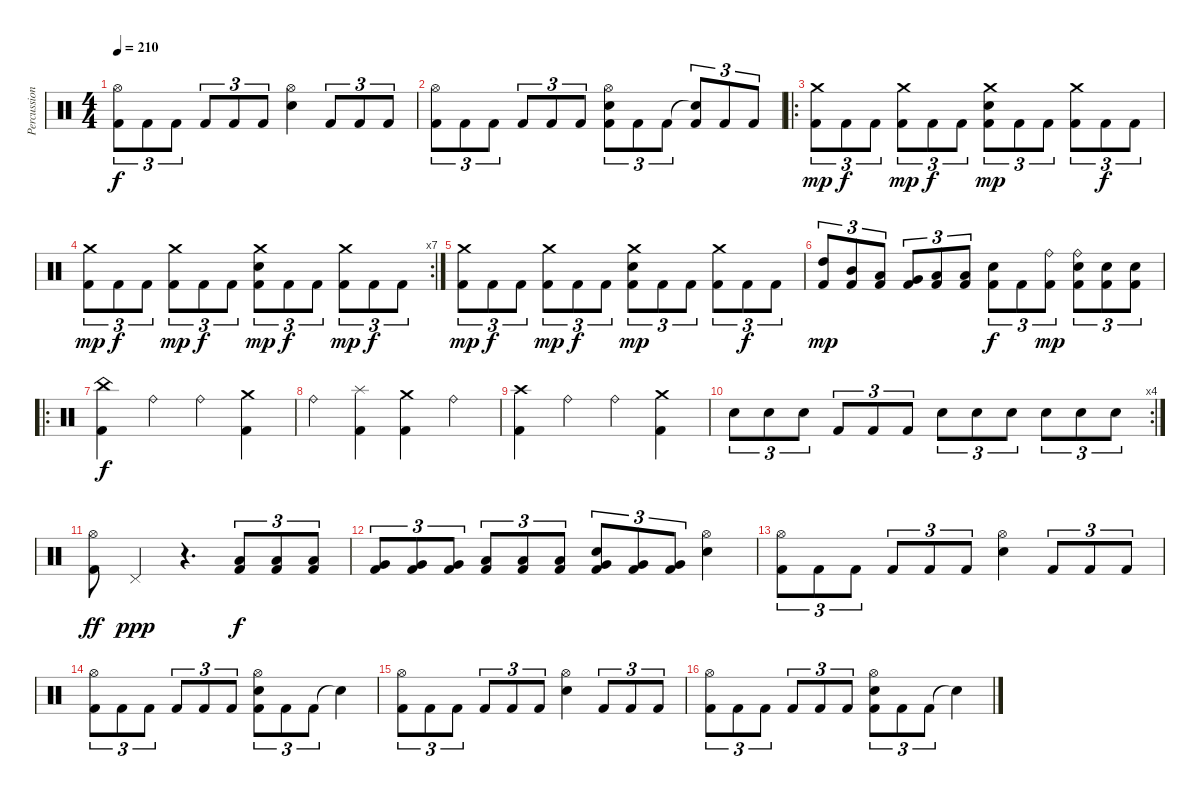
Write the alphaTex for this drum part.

\track ("Percussion" "Percussion") {instrument percussion}
\staff {score}
\articulation defaults
\ts (4 4)
\tempo 210
\clef neutral
\ks c
("Hi-Hat (open)" "Kick (hit) 2").8{tu (3 2) dy f} "Kick (hit) 2".8{tu (3 2)} "Kick (hit) 2".8{tu (3 2)} "Kick (hit) 2".8{tu (3 2)} "Kick (hit) 2".8{tu (3 2)} "Kick (hit) 2".8{tu (3 2)} ("Hi-Hat (open)" "Electric Snare (hit)").4 "Kick (hit) 2".8{tu (3 2)} "Kick (hit) 2".8{tu (3 2)} "Kick (hit) 2".8{tu (3 2)} |
("Hi-Hat (open)" "Kick (hit) 2").8{tu (3 2)} "Kick (hit) 2".8{tu (3 2)} "Kick (hit) 2".8{tu (3 2)} "Kick (hit) 2".8{tu (3 2)} "Kick (hit) 2".8{tu (3 2)} "Kick (hit) 2".8{tu (3 2)} ("Hi-Hat (open)" "Electric Snare (hit)" "Kick (hit) 2").8{tu (3 2)} "Kick (hit) 2".8{tu (3 2)} "Kick (hit) 2".8{tu (3 2)} ("Snare (hit)"{t} "Kick (hit) 2").8{tu (3 2)} "Kick (hit) 2".8{tu (3 2)} "Kick (hit) 2".8{tu (3 2)} |
\ro
("Crash medium (hit)" "Kick (hit) 2").8{tu (3 2) dy mp} "Kick (hit) 2".8{tu (3 2) dy f} "Kick (hit) 2".8{tu (3 2)} ("Crash medium (hit)" "Kick (hit) 2").8{tu (3 2) dy mp} "Kick (hit) 2".8{tu (3 2) dy f} "Kick (hit) 2".8{tu (3 2)} ("Crash medium (hit)" "Electric Snare (hit)" "Kick (hit) 2").8{tu (3 2) dy mp} "Kick (hit) 2".8{tu (3 2)} "Kick (hit) 2".8{tu (3 2)} ("Crash medium (hit)" "Kick (hit) 2").8{tu (3 2)} "Kick (hit) 2".8{tu (3 2) dy f} "Kick (hit) 2".8{tu (3 2)} |
\rc 7
("Crash medium (hit)" "Kick (hit) 2").8{tu (3 2) dy mp} "Kick (hit) 2".8{tu (3 2) dy f} "Kick (hit) 2".8{tu (3 2)} ("Crash medium (hit)" "Kick (hit) 2").8{tu (3 2) dy mp} "Kick (hit) 2".8{tu (3 2) dy f} "Kick (hit) 2".8{tu (3 2)} ("Crash medium (hit)" "Electric Snare (hit)" "Kick (hit) 2").8{tu (3 2) dy mp} "Kick (hit) 2".8{tu (3 2) dy f} "Kick (hit) 2".8{tu (3 2)} ("Crash medium (hit)" "Kick (hit) 2").8{tu (3 2) dy mp} "Kick (hit) 2".8{tu (3 2) dy f} "Kick (hit) 2".8{tu (3 2)} |
("Crash medium (hit)" "Kick (hit) 2").8{tu (3 2) dy mp} "Kick (hit) 2".8{tu (3 2) dy f} "Kick (hit) 2".8{tu (3 2)} ("Crash medium (hit)" "Kick (hit) 2").8{tu (3 2) dy mp} "Kick (hit) 2".8{tu (3 2) dy f} "Kick (hit) 2".8{tu (3 2)} ("Crash medium (hit)" "Electric Snare (hit)" "Kick (hit) 2").8{tu (3 2) dy mp} "Kick (hit) 2".8{tu (3 2)} "Kick (hit) 2".8{tu (3 2)} ("Crash medium (hit)" "Kick (hit) 2").8{tu (3 2)} "Kick (hit) 2".8{tu (3 2) dy f} "Kick (hit) 2".8{tu (3 2)} |
("High Tom (hit)" "Kick (hit) 2").8{tu (3 2) dy mp} ("Mid Tom (hit)" "Kick (hit) 2").8{tu (3 2)} ("Low Tom (hit)" "Kick (hit) 2").8{tu (3 2)} ("Very Low Tom (hit)" "Kick (hit) 2").8{tu (3 2)} ("Low Floor Tom (hit)" "Kick (hit) 2").8{tu (3 2)} ("Low Floor Tom (hit)" "Kick (hit) 2").8{tu (3 2)} ("Electric Snare (hit)" "Kick (hit) 2").8{tu (3 2) dy f} "Kick (hit) 2".8{tu (3 2)} ("Ride (bell)" "Kick (hit) 2").8{tu (3 2) dy mp} ("Ride (bell)" "Electric Snare (hit)" "Kick (hit) 2").8{tu (3 2)} ("Electric Snare (hit)" "Kick (hit) 2").8{tu (3 2)} ("Electric Snare (hit)" "Kick (hit) 2").8{tu (3 2)} |
\ro
("China (hit)" "Kick (hit) 2").4{dy f} "Ride (bell)".4 "Ride (bell)".4 ("Crash medium (hit)" "Kick (hit) 2").4 |
"Ride (bell)".4 ("Splash (hit)" "Kick (hit) 2").4 ("Crash medium (hit)" "Kick (hit) 2").4 "Ride (bell)".4 |
("Crash high (hit)" "Kick (hit) 2").4 "Ride (bell)".4 "Ride (bell)".4 ("Crash medium (hit)" "Kick (hit) 2").4 |
\rc 4 "Electric Snare (hit)".8{tu (3 2)} "Electric Snare (hit)".8{tu (3 2)} "Electric Snare (hit)".8{tu (3 2)} "Kick (hit) 2".8{tu (3 2)} "Kick (hit) 2".8{tu (3 2)} "Kick (hit) 2".8{tu (3 2)} "Electric Snare (hit)".8{tu (3 2)} "Electric Snare (hit)".8{tu (3 2)} "Electric Snare (hit)".8{tu (3 2)} "Electric Snare (hit)".8{tu (3 2)} "Electric Snare (hit)".8{tu (3 2)} "Electric Snare (hit)".8{tu (3 2)}
|
("Hi-Hat (open)" "Kick (hit) 2").8{dy ff} "Pedal Hi-Hat (hit)".4{dy ppp} r.4{d} ("Low Tom (hit)" "Kick (hit) 2").8{tu (3 2) dy f} ("Low Tom (hit)" "Kick (hit) 2").8{tu (3 2)} ("Low Tom (hit)" "Kick (hit) 2").8{tu (3 2)} |
("Very Low Tom (hit)" "Kick (hit) 2").8{tu (3 2)} ("Very Low Tom (hit)" "Kick (hit) 2").8{tu (3 2)} ("Very Low Tom (hit)" "Kick (hit) 2").8{tu (3 2)} ("Low Floor Tom (hit)" "Kick (hit) 2").8{tu (3 2)} ("Low Floor Tom (hit)" "Kick (hit) 2").8{tu (3 2)} ("Low Floor Tom (hit)" "Kick (hit) 2").8{tu (3 2)} ("Electric Snare (hit)" "Very Low Tom (hit)" "Kick (hit) 2").8{tu (3 2)} ("Very Low Tom (hit)" "Kick (hit) 2").8{tu (3 2)} ("Very Low Tom (hit)" "Kick (hit) 2").8{tu (3 2)} ("Hi-Hat (open)" "Electric Snare (hit)").4 |
("Hi-Hat (open)" "Kick (hit) 2").8{tu (3 2)} "Kick (hit) 2".8{tu (3 2)} "Kick (hit) 2".8{tu (3 2)} "Kick (hit) 2".8{tu (3 2)} "Kick (hit) 2".8{tu (3 2)} "Kick (hit) 2".8{tu (3 2)} ("Hi-Hat (open)" "Electric Snare (hit)").4 "Kick (hit) 2".8{tu (3 2)} "Kick (hit) 2".8{tu (3 2)} "Kick (hit) 2".8{tu (3 2)} |
("Hi-Hat (open)" "Kick (hit) 2").8{tu (3 2)} "Kick (hit) 2".8{tu (3 2)} "Kick (hit) 2".8{tu (3 2)} "Kick (hit) 2".8{tu (3 2)} "Kick (hit) 2".8{tu (3 2)} "Kick (hit) 2".8{tu (3 2)} ("Hi-Hat (open)" "Electric Snare (hit)" "Kick (hit) 2").8{tu (3 2)} "Kick (hit) 2".8{tu (3 2)} "Kick (hit) 2".8{tu (3 2)} "Snare (hit)"{t}.4 |
("Hi-Hat (open)" "Kick (hit) 2").8{tu (3 2)} "Kick (hit) 2".8{tu (3 2)} "Kick (hit) 2".8{tu (3 2)} "Kick (hit) 2".8{tu (3 2)} "Kick (hit) 2".8{tu (3 2)} "Kick (hit) 2".8{tu (3 2)} ("Hi-Hat (open)" "Electric Snare (hit)").4 "Kick (hit) 2".8{tu (3 2)} "Kick (hit) 2".8{tu (3 2)} "Kick (hit) 2".8{tu (3 2)} |
("Hi-Hat (open)" "Kick (hit) 2").8{tu (3 2)} "Kick (hit) 2".8{tu (3 2)} "Kick (hit) 2".8{tu (3 2)} "Kick (hit) 2".8{tu (3 2)} "Kick (hit) 2".8{tu (3 2)} "Kick (hit) 2".8{tu (3 2)} ("Hi-Hat (open)" "Electric Snare (hit)" "Kick (hit) 2").8{tu (3 2)} "Kick (hit) 2".8{tu (3 2)} "Kick (hit) 2".8{tu (3 2)} "Snare (hit)"{t}.4
